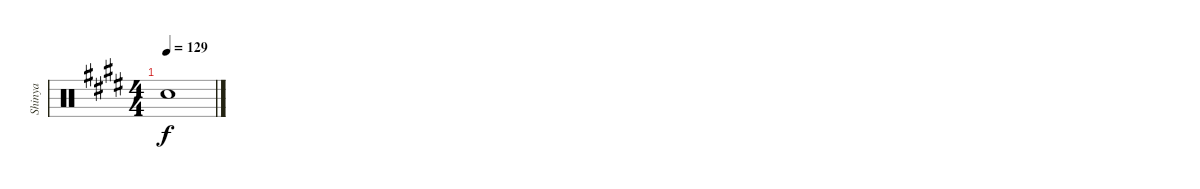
\track ("Shinya" "Shinya") {instrument percussion}
\staff {score}
\articulation defaults
\ts (4 4)
\tempo 129
\clef neutral
\ks e "Snare (hit)"{t}.1{dy f}
